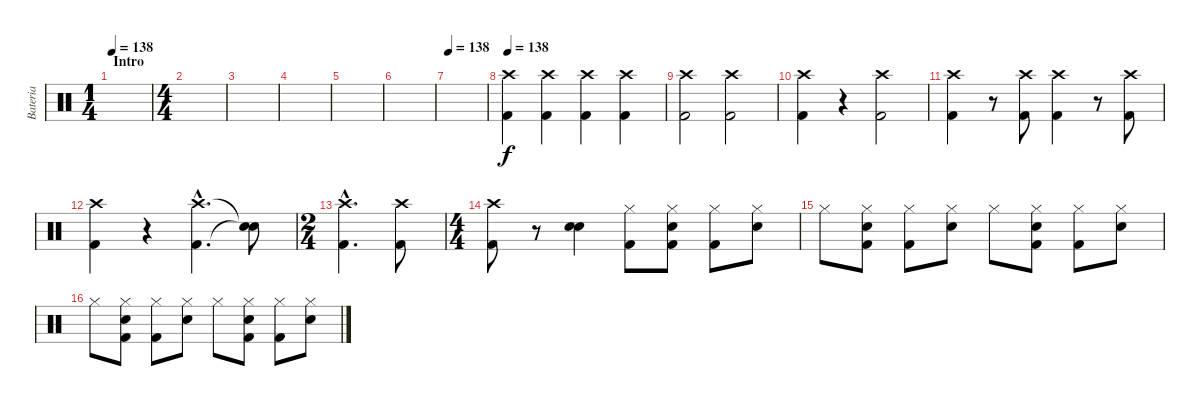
\track ("Bateria" "Bateria") {instrument percussion}
\staff {score}
\articulation defaults
\ts (1 4)
\section ("" "Intro")
\tempo 138
\clef neutral
\ks c
|
\ts (4 4)
|
|
|
|
|
\tempo 138
|
\tempo 138
("Kick (hit) 2" "Crash high (hit)").4{volume 16} ("Kick (hit) 2" "Crash high (hit)").4 ("Kick (hit) 2" "Crash high (hit)").4 ("Kick (hit) 2" "Crash high (hit)").4 |
("Kick (hit) 2" "Crash high (hit)").2{volume 13} ("Kick (hit) 2" "Crash high (hit)").2 |
("Kick (hit) 2" "Crash high (hit)").4 r.4 ("Kick (hit) 2" "Crash high (hit)").2 |
("Kick (hit) 2" "Crash high (hit)").4 r.8 ("Kick (hit) 2" "Crash high (hit)").8 ("Kick (hit) 2" "Crash high (hit)").4 r.8 ("Kick (hit) 2" "Crash high (hit)").8 |
("Kick (hit) 2" "Crash high (hit)").4 r.4 ("Kick (hit) 2"{hac} "Crash high (hit)"{hac}).4{d} ("Snare (hit)"{t} "Snare (hit)"{t}).8 |
\ts (2 4)
("Kick (hit) 2"{hac} "Crash high (hit)"{hac}).4{d} ("Kick (hit) 2" "Crash high (hit)").8 |
\ts (4 4)
("Kick (hit) 2" "Crash high (hit)").8 r.8 ("Electric Snare (hit)" "Electric Snare (hit)").4 ("Hi-Hat (closed)" "Kick (hit) 2").8 ("Electric Snare (hit)" "Hi-Hat (closed)" "Kick (hit) 2").8 ("Hi-Hat (closed)" "Kick (hit) 2").8 ("Electric Snare (hit)" "Hi-Hat (closed)").8 |
"Hi-Hat (closed)".8 ("Electric Snare (hit)" "Hi-Hat (closed)" "Kick (hit) 2").8 ("Hi-Hat (closed)" "Kick (hit) 2").8 ("Electric Snare (hit)" "Hi-Hat (closed)").8 "Hi-Hat (closed)".8 ("Electric Snare (hit)" "Hi-Hat (closed)" "Kick (hit) 2").8 ("Hi-Hat (closed)" "Kick (hit) 2").8 ("Electric Snare (hit)" "Hi-Hat (closed)").8 |
"Hi-Hat (closed)".8 ("Electric Snare (hit)" "Hi-Hat (closed)" "Kick (hit) 2").8 ("Hi-Hat (closed)" "Kick (hit) 2").8 ("Electric Snare (hit)" "Hi-Hat (closed)").8 "Hi-Hat (closed)".8 ("Electric Snare (hit)" "Hi-Hat (closed)" "Kick (hit) 2").8 ("Hi-Hat (closed)" "Kick (hit) 2").8 ("Electric Snare (hit)" "Hi-Hat (closed)").8
